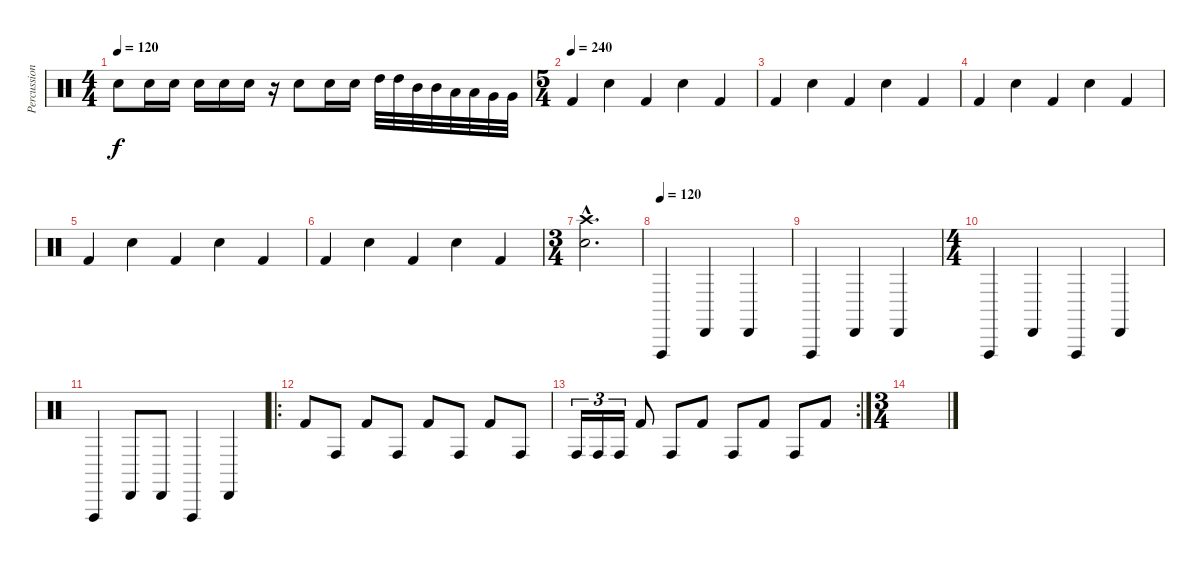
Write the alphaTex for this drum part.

\track ("Percussion" "Percussion") {instrument percussion}
\staff {score}
\articulation defaults
\ts (4 4)
\tempo 120
\clef neutral
\ks c "Electric Snare (hit)".8{dy f} "Electric Snare (hit)".16 "Electric Snare (hit)".16 "Electric Snare (hit)".16 "Electric Snare (hit)".16 "Electric Snare (hit)".16
r.16 "Electric Snare (hit)".8 "Electric Snare (hit)".16 "Electric Snare (hit)".16 "High Tom (hit)".32 "High Tom (hit)".32 "Mid Tom (hit)".32 "Mid Tom (hit)".32 "Low Tom (hit)".32 "Low Tom (hit)".32 "Very Low Tom (hit)".32 "Very Low Tom (hit)".32 |
\ts (5 4)
\tempo (240)
"Kick (hit) 2".4 "Electric Snare (hit)".4 "Kick (hit) 2".4 "Electric Snare (hit)".4 "Kick (hit) 2".4 |
"Kick (hit) 2".4 "Electric Snare (hit)".4 "Kick (hit) 2".4 "Electric Snare (hit)".4 "Kick (hit) 2".4 |
"Kick (hit) 2".4 "Electric Snare (hit)".4 "Kick (hit) 2".4 "Electric Snare (hit)".4 "Kick (hit) 2".4 |
"Kick (hit) 2".4 "Electric Snare (hit)".4 "Kick (hit) 2".4 "Electric Snare (hit)".4 "Kick (hit) 2".4 |
"Kick (hit) 2".4 "Electric Snare (hit)".4 "Kick (hit) 2".4 "Electric Snare (hit)".4 "Kick (hit) 2".4 |
\ts (3 4)
("Crash high (hit)"{hac} "Electric Snare (hit)"{hac}).2{d} |
\tempo (120)
"Vibraslap (hit)".4 "Cabasa (hit)".4 "Cabasa (hit)".4 |
"Vibraslap (hit)".4 "Cabasa (hit)".4 "Cabasa (hit)".4 |
\ts (4 4)
"Vibraslap (hit)".4 "Cabasa (hit)".4 "Vibraslap (hit)".4 "Cabasa (hit)".4 |
"Vibraslap (hit)".4 "Cabasa (hit)".8 "Cabasa (hit)".8 "Vibraslap (hit)".4 "Cabasa (hit)".4 |
\ro "Kick (hit) 2".8 "Conga high (hit)".8 "Kick (hit) 2".8 "Conga high (hit)".8 "Kick (hit) 2".8 "Conga high (hit)".8 "Kick (hit) 2".8 "Conga high (hit)".8
|
\rc 2 "Conga high (hit)".16{tu (3 2)} "Conga high (hit)".16{tu (3 2)} "Conga high (hit)".16{tu (3 2)} "Kick (hit) 2".8 "Conga high (hit)".8 "Kick (hit) 2".8 "Conga high (hit)".8 "Kick (hit) 2".8 "Conga high (hit)".8 "Kick (hit) 2".8
|
\ts (3 4)
